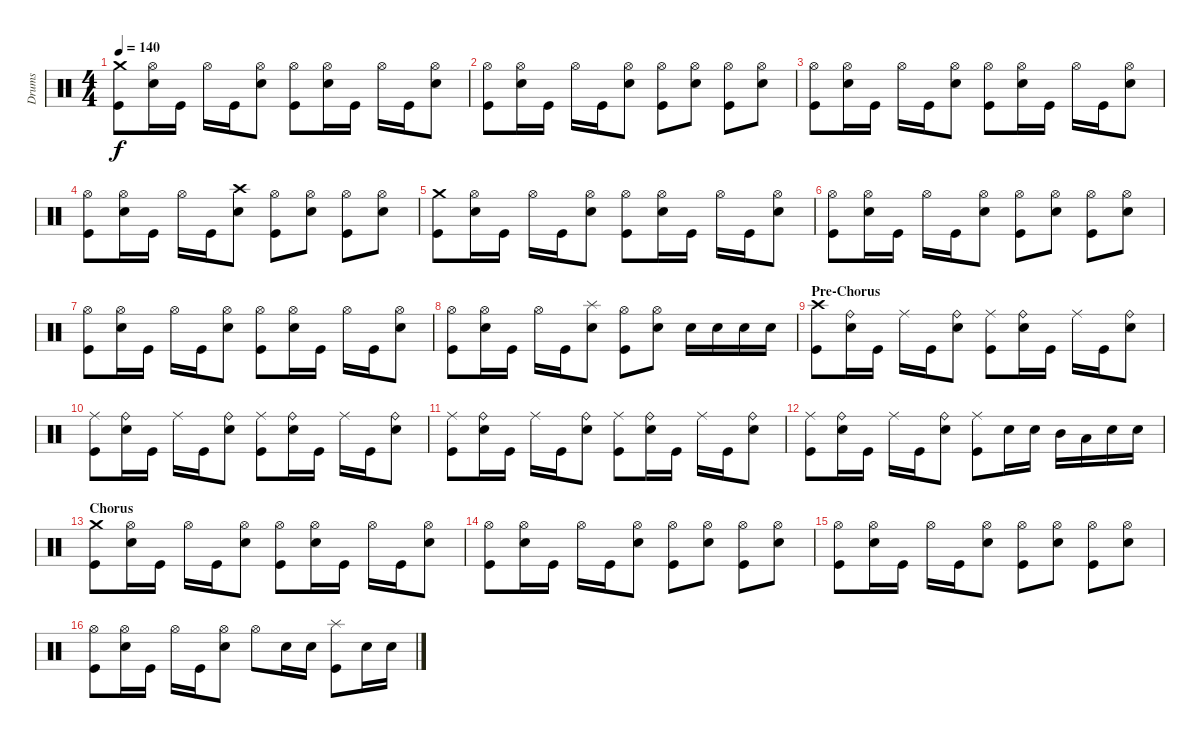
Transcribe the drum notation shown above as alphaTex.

\track ("Drums" "Drums") {instrument percussion}
\staff {score}
\articulation defaults
\ts (4 4)
\tempo 140
\clef neutral
\ks c
("Crash medium (hit)" "Kick (hit)").8{dy f} ("Hi-Hat (open)" "Snare (hit) 2").16 "Kick (hit)".16 "Hi-Hat (open)".16 "Kick (hit)".16 ("Hi-Hat (open)" "Snare (hit) 2").8 ("Hi-Hat (open)" "Kick (hit)").8 ("Hi-Hat (open)" "Snare (hit) 2").16 "Kick (hit)".16 "Hi-Hat (open)".16 "Kick (hit)".16 ("Hi-Hat (open)" "Snare (hit) 2").8 |
("Hi-Hat (open)" "Kick (hit)").8 ("Hi-Hat (open)" "Snare (hit) 2").16 "Kick (hit)".16 "Hi-Hat (open)".16 "Kick (hit)".16 ("Hi-Hat (open)" "Snare (hit) 2").8 ("Hi-Hat (open)" "Kick (hit)").8 ("Hi-Hat (open)" "Snare (hit) 2").8 ("Hi-Hat (open)" "Kick (hit)").8 ("Hi-Hat (open)" "Snare (hit) 2").8 |
("Hi-Hat (open)" "Kick (hit)").8 ("Hi-Hat (open)" "Snare (hit) 2").16 "Kick (hit)".16 "Hi-Hat (open)".16 "Kick (hit)".16 ("Hi-Hat (open)" "Snare (hit) 2").8 ("Hi-Hat (open)" "Kick (hit)").8 ("Hi-Hat (open)" "Snare (hit) 2").16 "Kick (hit)".16 "Hi-Hat (open)".16 "Kick (hit)".16 ("Hi-Hat (open)" "Snare (hit) 2").8 |
("Hi-Hat (open)" "Kick (hit)").8 ("Hi-Hat (open)" "Snare (hit) 2").16 "Kick (hit)".16 "Hi-Hat (open)".16 "Kick (hit)".16 ("Crash high (hit)" "Snare (hit) 2").8 ("Hi-Hat (open)" "Kick (hit)").8 ("Hi-Hat (open)" "Snare (hit) 2").8 ("Hi-Hat (open)" "Kick (hit)").8 ("Hi-Hat (open)" "Snare (hit) 2").8 |
("Crash medium (hit)" "Kick (hit)").8 ("Hi-Hat (open)" "Snare (hit) 2").16 "Kick (hit)".16 "Hi-Hat (open)".16 "Kick (hit)".16 ("Hi-Hat (open)" "Snare (hit) 2").8 ("Hi-Hat (open)" "Kick (hit)").8 ("Hi-Hat (open)" "Snare (hit) 2").16 "Kick (hit)".16 "Hi-Hat (open)".16 "Kick (hit)".16 ("Hi-Hat (open)" "Snare (hit) 2").8 |
("Hi-Hat (open)" "Kick (hit)").8 ("Hi-Hat (open)" "Snare (hit) 2").16 "Kick (hit)".16 "Hi-Hat (open)".16 "Kick (hit)".16 ("Hi-Hat (open)" "Snare (hit) 2").8 ("Hi-Hat (open)" "Kick (hit)").8 ("Hi-Hat (open)" "Snare (hit) 2").8 ("Hi-Hat (open)" "Kick (hit)").8 ("Hi-Hat (open)" "Snare (hit) 2").8 |
("Hi-Hat (open)" "Kick (hit)").8 ("Hi-Hat (open)" "Snare (hit) 2").16 "Kick (hit)".16 "Hi-Hat (open)".16 "Kick (hit)".16 ("Hi-Hat (open)" "Snare (hit) 2").8 ("Hi-Hat (open)" "Kick (hit)").8 ("Hi-Hat (open)" "Snare (hit) 2").16 "Kick (hit)".16 "Hi-Hat (open)".16 "Kick (hit)".16 ("Hi-Hat (open)" "Snare (hit) 2").8 |
("Hi-Hat (open)" "Kick (hit)").8 ("Hi-Hat (open)" "Snare (hit) 2").16 "Kick (hit)".16 "Hi-Hat (open)".16 "Kick (hit)".16 ("Splash (hit)" "Snare (hit) 2").8 ("Hi-Hat (open)" "Kick (hit)").8 ("Hi-Hat (open)" "Snare (hit) 2").8 "Snare (hit) 2".16 "Snare (hit) 2".16 "Snare (hit) 2".16 "Snare (hit) 2".16 |
\section ("" "Pre-Chorus")
("Crash high (hit)" "Kick (hit)").8 ("Ride (bell)" "Snare (hit) 2").16 "Kick (hit)".16 "Ride (middle)".16 "Kick (hit)".16 ("Ride (bell)" "Snare (hit) 2").8 ("Ride (middle)" "Kick (hit)").8 ("Ride (bell)" "Snare (hit) 2").16 "Kick (hit)".16 "Ride (middle)".16 "Kick (hit)".16 ("Ride (bell)" "Snare (hit) 2").8 |
("Ride (middle)" "Kick (hit)").8 ("Ride (bell)" "Snare (hit) 2").16 "Kick (hit)".16 "Ride (middle)".16 "Kick (hit)".16 ("Ride (bell)" "Snare (hit) 2").8 ("Ride (middle)" "Kick (hit)").8 ("Ride (bell)" "Snare (hit) 2").16 "Kick (hit)".16 "Ride (middle)".16 "Kick (hit)".16 ("Ride (bell)" "Snare (hit) 2").8 |
("Ride (middle)" "Kick (hit)").8 ("Ride (bell)" "Snare (hit) 2").16 "Kick (hit)".16 "Ride (middle)".16 "Kick (hit)".16 ("Ride (bell)" "Snare (hit) 2").8 ("Ride (middle)" "Kick (hit)").8 ("Ride (bell)" "Snare (hit) 2").16 "Kick (hit)".16 "Ride (middle)".16 "Kick (hit)".16 ("Ride (bell)" "Snare (hit) 2").8 |
("Ride (middle)" "Kick (hit)").8 ("Ride (bell)" "Snare (hit) 2").16 "Kick (hit)".16 "Ride (middle)".16 "Kick (hit)".16 ("Ride (bell)" "Snare (hit) 2").8 ("Ride (middle)" "Kick (hit)").8 "Snare (hit) 2".16 "Snare (hit) 2".16 "Mid Tom (hit)".16 "Low Tom (hit)".16 "Snare (hit) 2".16 "Snare (hit) 2".16 |
\section ("" "Chorus")
("Crash medium (hit)" "Kick (hit)").8 ("Hi-Hat (open)" "Snare (hit) 2").16 "Kick (hit)".16 "Hi-Hat (open)".16 "Kick (hit)".16 ("Hi-Hat (open)" "Snare (hit) 2").8 ("Hi-Hat (open)" "Kick (hit)").8 ("Hi-Hat (open)" "Snare (hit) 2").16 "Kick (hit)".16 "Hi-Hat (open)".16 "Kick (hit)".16 ("Hi-Hat (open)" "Snare (hit) 2").8 |
("Hi-Hat (open)" "Kick (hit)").8 ("Hi-Hat (open)" "Snare (hit) 2").16 "Kick (hit)".16 "Hi-Hat (open)".16 "Kick (hit)".16 ("Hi-Hat (open)" "Snare (hit) 2").8 ("Hi-Hat (open)" "Kick (hit)").8 ("Hi-Hat (open)" "Snare (hit) 2").8 ("Hi-Hat (open)" "Kick (hit)").8 ("Hi-Hat (open)" "Snare (hit) 2").8 |
("Hi-Hat (open)" "Kick (hit)").8 ("Hi-Hat (open)" "Snare (hit) 2").16 "Kick (hit)".16 "Hi-Hat (open)".16 "Kick (hit)".16 ("Hi-Hat (open)" "Snare (hit) 2").8 ("Hi-Hat (open)" "Kick (hit)").8 ("Hi-Hat (open)" "Snare (hit) 2").8 ("Hi-Hat (open)" "Kick (hit)").8 ("Hi-Hat (open)" "Snare (hit) 2").8 |
("Hi-Hat (open)" "Kick (hit)").8 ("Hi-Hat (open)" "Snare (hit) 2").16 "Kick (hit)".16 "Hi-Hat (open)".16 "Kick (hit)".16 ("Hi-Hat (open)" "Snare (hit) 2").8 "Hi-Hat (open)".8 "Snare (hit) 2".16 "Snare (hit) 2".16 ("Splash (hit)" "Kick (hit)").8 "Snare (hit) 2".16 "Snare (hit) 2".16
